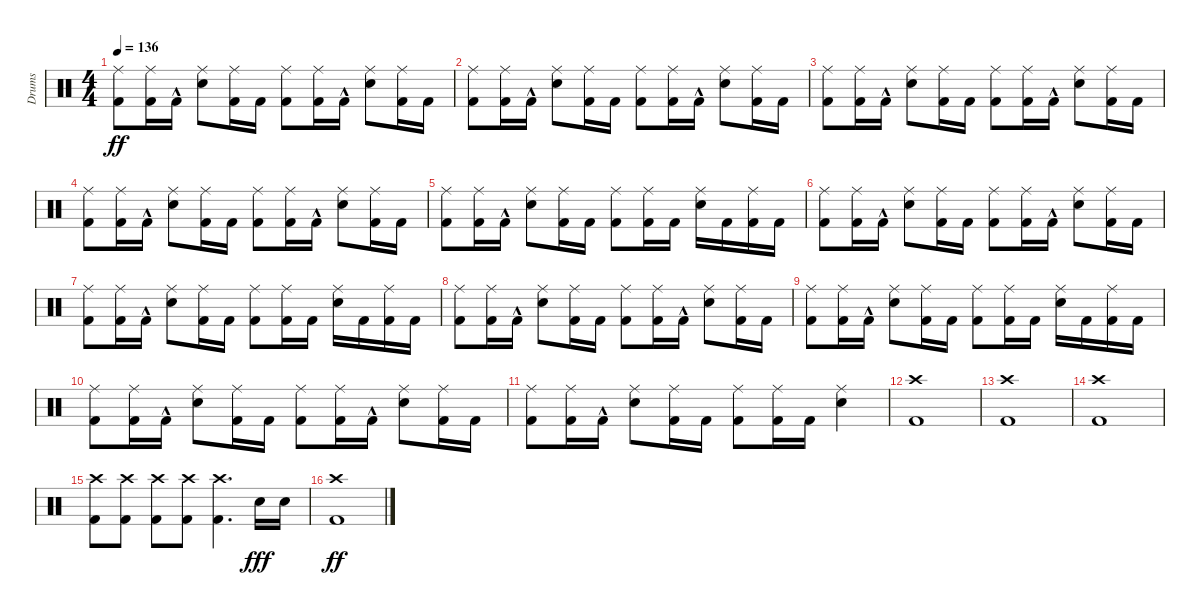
\track ("Drums" "Drums") {instrument percussion}
\staff {score}
\articulation defaults
\ts (4 4)
\tempo 136
\clef neutral
\ks c
("Kick (hit) 2" "Ride (middle)").8{dy ff} ("Kick (hit) 2" "Ride (middle)").16 "Kick (hit) 2"{hac}.16 ("Snare (hit) 2" "Ride (middle)").8 ("Kick (hit) 2" "Ride (middle)").16 "Kick (hit) 2".16 ("Kick (hit) 2" "Ride (middle)").8 ("Kick (hit) 2" "Ride (middle)").16 "Kick (hit) 2"{hac}.16 ("Snare (hit) 2" "Ride (middle)").8 ("Kick (hit) 2" "Ride (middle)").16 "Kick (hit) 2".16 |
("Kick (hit) 2" "Ride (middle)").8 ("Kick (hit) 2" "Ride (middle)").16 "Kick (hit) 2"{hac}.16 ("Snare (hit) 2" "Ride (middle)").8 ("Kick (hit) 2" "Ride (middle)").16 "Kick (hit) 2".16 ("Kick (hit) 2" "Ride (middle)").8 ("Kick (hit) 2" "Ride (middle)").16 "Kick (hit) 2"{hac}.16 ("Snare (hit) 2" "Ride (middle)").8 ("Kick (hit) 2" "Ride (middle)").16 "Kick (hit) 2".16 |
("Kick (hit) 2" "Ride (middle)").8 ("Kick (hit) 2" "Ride (middle)").16 "Kick (hit) 2"{hac}.16 ("Snare (hit) 2" "Ride (middle)").8 ("Kick (hit) 2" "Ride (middle)").16 "Kick (hit) 2".16 ("Kick (hit) 2" "Ride (middle)").8 ("Kick (hit) 2" "Ride (middle)").16 "Kick (hit) 2"{hac}.16 ("Snare (hit) 2" "Ride (middle)").8 ("Kick (hit) 2" "Ride (middle)").16 "Kick (hit) 2".16 |
("Kick (hit) 2" "Ride (middle)").8 ("Kick (hit) 2" "Ride (middle)").16 "Kick (hit) 2"{hac}.16 ("Snare (hit) 2" "Ride (middle)").8 ("Kick (hit) 2" "Ride (middle)").16 "Kick (hit) 2".16 ("Kick (hit) 2" "Ride (middle)").8 ("Kick (hit) 2" "Ride (middle)").16 "Kick (hit) 2"{hac}.16 ("Snare (hit) 2" "Ride (middle)").8 ("Kick (hit) 2" "Ride (middle)").16 "Kick (hit) 2".16 |
("Kick (hit) 2" "Ride (middle)").8 ("Kick (hit) 2" "Ride (middle)").16 "Kick (hit) 2"{hac}.16 ("Snare (hit) 2" "Ride (middle)").8 ("Kick (hit) 2" "Ride (middle)").16 "Kick (hit) 2".16 ("Kick (hit) 2" "Ride (middle)").8 ("Kick (hit) 2" "Ride (middle)").16 "Kick (hit) 2".16 ("Snare (hit) 2" "Ride (middle)").16 "Kick (hit) 2".16 ("Kick (hit) 2" "Ride (middle)").16 "Kick (hit) 2".16 |
("Kick (hit) 2" "Ride (middle)").8 ("Kick (hit) 2" "Ride (middle)").16 "Kick (hit) 2"{hac}.16 ("Snare (hit) 2" "Ride (middle)").8 ("Kick (hit) 2" "Ride (middle)").16 "Kick (hit) 2".16 ("Kick (hit) 2" "Ride (middle)").8 ("Kick (hit) 2" "Ride (middle)").16 "Kick (hit) 2"{hac}.16 ("Snare (hit) 2" "Ride (middle)").8 ("Kick (hit) 2" "Ride (middle)").16 "Kick (hit) 2".16 |
("Kick (hit) 2" "Ride (middle)").8 ("Kick (hit) 2" "Ride (middle)").16 "Kick (hit) 2"{hac}.16 ("Snare (hit) 2" "Ride (middle)").8 ("Kick (hit) 2" "Ride (middle)").16 "Kick (hit) 2".16 ("Kick (hit) 2" "Ride (middle)").8 ("Kick (hit) 2" "Ride (middle)").16 "Kick (hit) 2".16 ("Snare (hit) 2" "Ride (middle)").16 "Kick (hit) 2".16 ("Kick (hit) 2" "Ride (middle)").16 "Kick (hit) 2".16 |
("Kick (hit) 2" "Ride (middle)").8 ("Kick (hit) 2" "Ride (middle)").16 "Kick (hit) 2"{hac}.16 ("Snare (hit) 2" "Ride (middle)").8 ("Kick (hit) 2" "Ride (middle)").16 "Kick (hit) 2".16 ("Kick (hit) 2" "Ride (middle)").8 ("Kick (hit) 2" "Ride (middle)").16 "Kick (hit) 2"{hac}.16 ("Snare (hit) 2" "Ride (middle)").8 ("Kick (hit) 2" "Ride (middle)").16 "Kick (hit) 2".16 |
("Kick (hit) 2" "Ride (middle)").8 ("Kick (hit) 2" "Ride (middle)").16 "Kick (hit) 2"{hac}.16 ("Snare (hit) 2" "Ride (middle)").8 ("Kick (hit) 2" "Ride (middle)").16 "Kick (hit) 2".16 ("Kick (hit) 2" "Ride (middle)").8 ("Kick (hit) 2" "Ride (middle)").16 "Kick (hit) 2".16 ("Snare (hit) 2" "Ride (middle)").16 "Kick (hit) 2".16 ("Kick (hit) 2" "Ride (middle)").16 "Kick (hit) 2".16 |
("Kick (hit) 2" "Ride (middle)").8 ("Kick (hit) 2" "Ride (middle)").16 "Kick (hit) 2"{hac}.16 ("Snare (hit) 2" "Ride (middle)").8 ("Kick (hit) 2" "Ride (middle)").16 "Kick (hit) 2".16 ("Kick (hit) 2" "Ride (middle)").8 ("Kick (hit) 2" "Ride (middle)").16 "Kick (hit) 2"{hac}.16 ("Snare (hit) 2" "Ride (middle)").8 ("Kick (hit) 2" "Ride (middle)").16 "Kick (hit) 2".16 |
("Kick (hit) 2" "Ride (middle)").8 ("Kick (hit) 2" "Ride (middle)").16 "Kick (hit) 2"{hac}.16 ("Snare (hit) 2" "Ride (middle)").8 ("Kick (hit) 2" "Ride (middle)").16 "Kick (hit) 2".16 ("Kick (hit) 2" "Ride (middle)").8 ("Kick (hit) 2" "Ride (middle)").16 "Kick (hit) 2".16 ("Snare (hit) 2" "Ride (middle)").4 |
("Kick (hit) 2" "Crash high (hit)").1 |
("Kick (hit) 2" "Crash high (hit)").1 |
("Kick (hit) 2" "Crash high (hit)").1 |
("Kick (hit) 2" "Crash high (hit)").8 ("Kick (hit) 2" "Crash high (hit)").8 ("Kick (hit) 2" "Crash high (hit)").8 ("Kick (hit) 2" "Crash high (hit)").8 ("Kick (hit) 2" "Crash high (hit)").4{d} "Snare (hit) 2".16{dy fff} "Snare (hit) 2".16 |
("Kick (hit) 2" "Crash high (hit)").1{dy ff}
